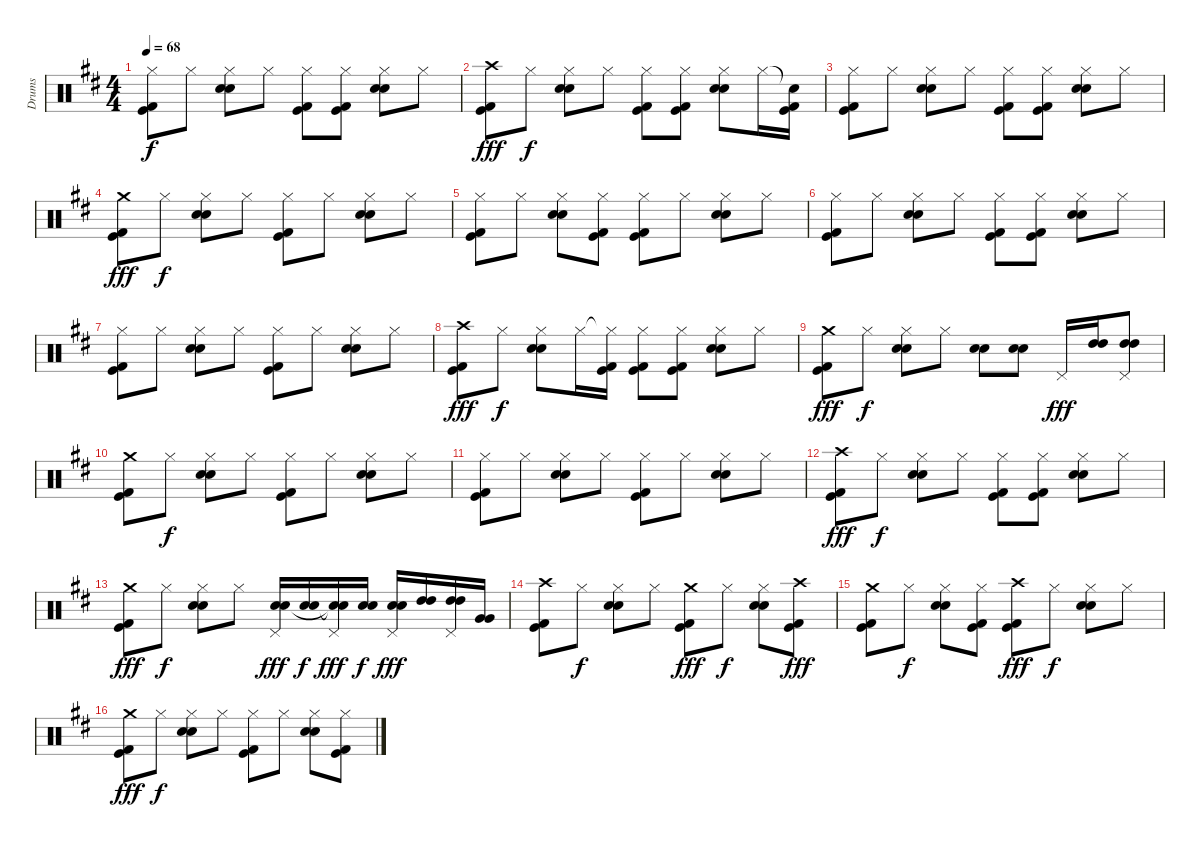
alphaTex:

\track ("Drums" "Drums") {instrument percussion}
\staff {score}
\articulation defaults
\ts (4 4)
\tempo 68
\clef neutral
\ks d
("Hi-Hat (closed)" "Kick (hit)" "Kick (hit) 2").8{dy f} "Hi-Hat (closed)".8 ("Hi-Hat (closed)" "Electric Snare (hit)" "Snare (hit) 2").8 "Hi-Hat (closed)".8 ("Hi-Hat (closed)" "Kick (hit)" "Kick (hit) 2").8 ("Hi-Hat (closed)" "Kick (hit)" "Kick (hit) 2").8 ("Hi-Hat (closed)" "Electric Snare (hit)" "Snare (hit) 2").8 "Hi-Hat (closed)".8 |
("Crash high (hit)" "Kick (hit)" "Kick (hit) 2").8{dy fff} "Hi-Hat (closed)".8{dy f} ("Hi-Hat (closed)" "Electric Snare (hit)" "Snare (hit) 2").8 "Hi-Hat (closed)".8 ("Hi-Hat (closed)" "Kick (hit)" "Kick (hit) 2").8 ("Hi-Hat (closed)" "Kick (hit)" "Kick (hit) 2").8 ("Hi-Hat (closed)" "Electric Snare (hit)" "Snare (hit) 2").8 "Hi-Hat (closed)".16 ("Snare (hit)"{t} "Kick (hit)" "Kick (hit) 2").16 |
("Hi-Hat (closed)" "Kick (hit)" "Kick (hit) 2").8 "Hi-Hat (closed)".8 ("Hi-Hat (closed)" "Electric Snare (hit)" "Snare (hit) 2").8 "Hi-Hat (closed)".8 ("Hi-Hat (closed)" "Kick (hit)" "Kick (hit) 2").8 ("Hi-Hat (closed)" "Kick (hit)" "Kick (hit) 2").8 ("Hi-Hat (closed)" "Electric Snare (hit)" "Snare (hit) 2").8 "Hi-Hat (closed)".8 |
("Crash medium (hit)" "Kick (hit)" "Kick (hit) 2").8{dy fff} "Hi-Hat (closed)".8{dy f} ("Hi-Hat (closed)" "Electric Snare (hit)" "Snare (hit) 2").8 "Hi-Hat (closed)".8 ("Hi-Hat (closed)" "Kick (hit)" "Kick (hit) 2").8 "Hi-Hat (closed)".8 ("Hi-Hat (closed)" "Electric Snare (hit)" "Snare (hit) 2").8 "Hi-Hat (closed)".8 |
("Hi-Hat (closed)" "Kick (hit)" "Kick (hit) 2").8 "Hi-Hat (closed)".8 ("Hi-Hat (closed)" "Electric Snare (hit)" "Snare (hit) 2").8 ("Hi-Hat (closed)" "Kick (hit)" "Kick (hit) 2").8 ("Hi-Hat (closed)" "Kick (hit)" "Kick (hit) 2").8 "Hi-Hat (closed)".8 ("Hi-Hat (closed)" "Electric Snare (hit)" "Snare (hit) 2").8 "Hi-Hat (closed)".8 |
("Hi-Hat (closed)" "Kick (hit)" "Kick (hit) 2").8 "Hi-Hat (closed)".8 ("Hi-Hat (closed)" "Electric Snare (hit)" "Snare (hit) 2").8 "Hi-Hat (closed)".8 ("Hi-Hat (closed)" "Kick (hit)" "Kick (hit) 2").8 ("Hi-Hat (closed)" "Kick (hit)" "Kick (hit) 2").8 ("Hi-Hat (closed)" "Electric Snare (hit)" "Snare (hit) 2").8 "Hi-Hat (closed)".8 |
("Hi-Hat (closed)" "Kick (hit)" "Kick (hit) 2").8 "Hi-Hat (closed)".8 ("Hi-Hat (closed)" "Electric Snare (hit)" "Snare (hit) 2").8 "Hi-Hat (closed)".8 ("Hi-Hat (closed)" "Kick (hit)" "Kick (hit) 2").8 "Hi-Hat (closed)".8 ("Hi-Hat (closed)" "Electric Snare (hit)" "Snare (hit) 2").8 "Hi-Hat (closed)".8 |
("Crash high (hit)" "Kick (hit)" "Kick (hit) 2").8{dy fff} "Hi-Hat (closed)".8{dy f} ("Hi-Hat (closed)" "Electric Snare (hit)" "Snare (hit) 2").8 "Hi-Hat (closed)".16 ("Hi-Hat (closed)"{t} "Kick (hit)" "Kick (hit) 2").16 ("Hi-Hat (closed)" "Kick (hit)" "Kick (hit) 2").8 ("Hi-Hat (closed)" "Kick (hit)" "Kick (hit) 2").8 ("Hi-Hat (closed)" "Electric Snare (hit)" "Snare (hit) 2").8 "Hi-Hat (closed)".8 |
("Crash medium (hit)" "Kick (hit)" "Kick (hit) 2").8{dy fff} "Hi-Hat (closed)".8{dy f} ("Hi-Hat (closed)" "Electric Snare (hit)" "Snare (hit) 2").8 "Hi-Hat (closed)".8 ("Electric Snare (hit)" "Snare (hit) 2").8 ("Electric Snare (hit)" "Snare (hit) 2").8 "Pedal Hi-Hat (hit)".16{dy fff} ("High Tom (hit)" "High Tom (hit)").16 ("Pedal Hi-Hat (hit)" "High Tom (hit)" "High Tom (hit)").8 |
("Crash medium (hit)" "Kick (hit)" "Kick (hit) 2").8 "Hi-Hat (closed)".8{dy f} ("Hi-Hat (closed)" "Electric Snare (hit)" "Snare (hit) 2").8 "Hi-Hat (closed)".8 ("Hi-Hat (closed)" "Kick (hit)" "Kick (hit) 2").8 "Hi-Hat (closed)".8 ("Hi-Hat (closed)" "Electric Snare (hit)" "Snare (hit) 2").8 "Hi-Hat (closed)".8 |
("Hi-Hat (closed)" "Kick (hit)" "Kick (hit) 2").8 "Hi-Hat (closed)".8 ("Hi-Hat (closed)" "Electric Snare (hit)" "Snare (hit) 2").8 "Hi-Hat (closed)".8 ("Hi-Hat (closed)" "Kick (hit)" "Kick (hit) 2").8 "Hi-Hat (closed)".8 ("Hi-Hat (closed)" "Electric Snare (hit)" "Snare (hit) 2").8 "Hi-Hat (closed)".8 |
("Crash high (hit)" "Kick (hit)" "Kick (hit) 2").8{dy fff} "Hi-Hat (closed)".8{dy f} ("Hi-Hat (closed)" "Electric Snare (hit)" "Snare (hit) 2").8 "Hi-Hat (closed)".8 ("Hi-Hat (closed)" "Kick (hit)" "Kick (hit) 2").8 ("Hi-Hat (closed)" "Kick (hit)" "Kick (hit) 2").8 ("Hi-Hat (closed)" "Electric Snare (hit)" "Snare (hit) 2").8 "Hi-Hat (closed)".8 |
("Crash medium (hit)" "Kick (hit)" "Kick (hit) 2").8{dy fff} "Hi-Hat (closed)".8{dy f} ("Hi-Hat (closed)" "Electric Snare (hit)" "Snare (hit) 2").8 "Hi-Hat (closed)".8 ("Pedal Hi-Hat (hit)" "Electric Snare (hit)" "Snare (hit) 2").16{dy fff} ("Electric Snare (hit)" "Snare (hit) 2").16{dy f} ("Pedal Hi-Hat (hit)" "Electric Snare (hit)"{t} "Snare (hit) 2"{t}).16{dy fff} ("Electric Snare (hit)" "Snare (hit) 2").16{dy f} ("Pedal Hi-Hat (hit)" "Electric Snare (hit)" "Snare (hit) 2").16{dy fff} ("High Tom (hit)" "High Tom (hit)").16 ("Pedal Hi-Hat (hit)" "High Tom (hit)" "High Tom (hit)").16 ("Very Low Tom (hit)" "Very Low Tom (hit)").16 |
("Crash high (hit)" "Kick (hit)" "Kick (hit) 2").8 "Hi-Hat (closed)".8{dy f} ("Hi-Hat (closed)" "Electric Snare (hit)" "Snare (hit) 2").8 "Hi-Hat (closed)".8 ("Crash medium (hit)" "Kick (hit)" "Kick (hit) 2").8{dy fff} "Hi-Hat (closed)".8{dy f} ("Hi-Hat (closed)" "Electric Snare (hit)" "Snare (hit) 2").8 ("Crash high (hit)" "Kick (hit)" "Kick (hit) 2").8{dy fff} |
("Crash medium (hit)" "Kick (hit)" "Kick (hit) 2").8 "Hi-Hat (closed)".8{dy f} ("Hi-Hat (closed)" "Electric Snare (hit)" "Snare (hit) 2").8 ("Hi-Hat (closed)" "Kick (hit)" "Kick (hit) 2").8 ("Crash high (hit)" "Kick (hit)" "Kick (hit) 2").8{dy fff} "Hi-Hat (closed)".8{dy f} ("Hi-Hat (closed)" "Electric Snare (hit)" "Snare (hit) 2").8 "Hi-Hat (closed)".8 |
("Crash medium (hit)" "Kick (hit)" "Kick (hit) 2").8{dy fff} "Hi-Hat (closed)".8{dy f} ("Hi-Hat (closed)" "Electric Snare (hit)" "Snare (hit) 2").8 "Hi-Hat (closed)".8 ("Hi-Hat (closed)" "Kick (hit)" "Kick (hit) 2").8 "Hi-Hat (closed)".8 ("Hi-Hat (closed)" "Electric Snare (hit)" "Snare (hit) 2").8 ("Hi-Hat (closed)" "Kick (hit)" "Kick (hit) 2").8
